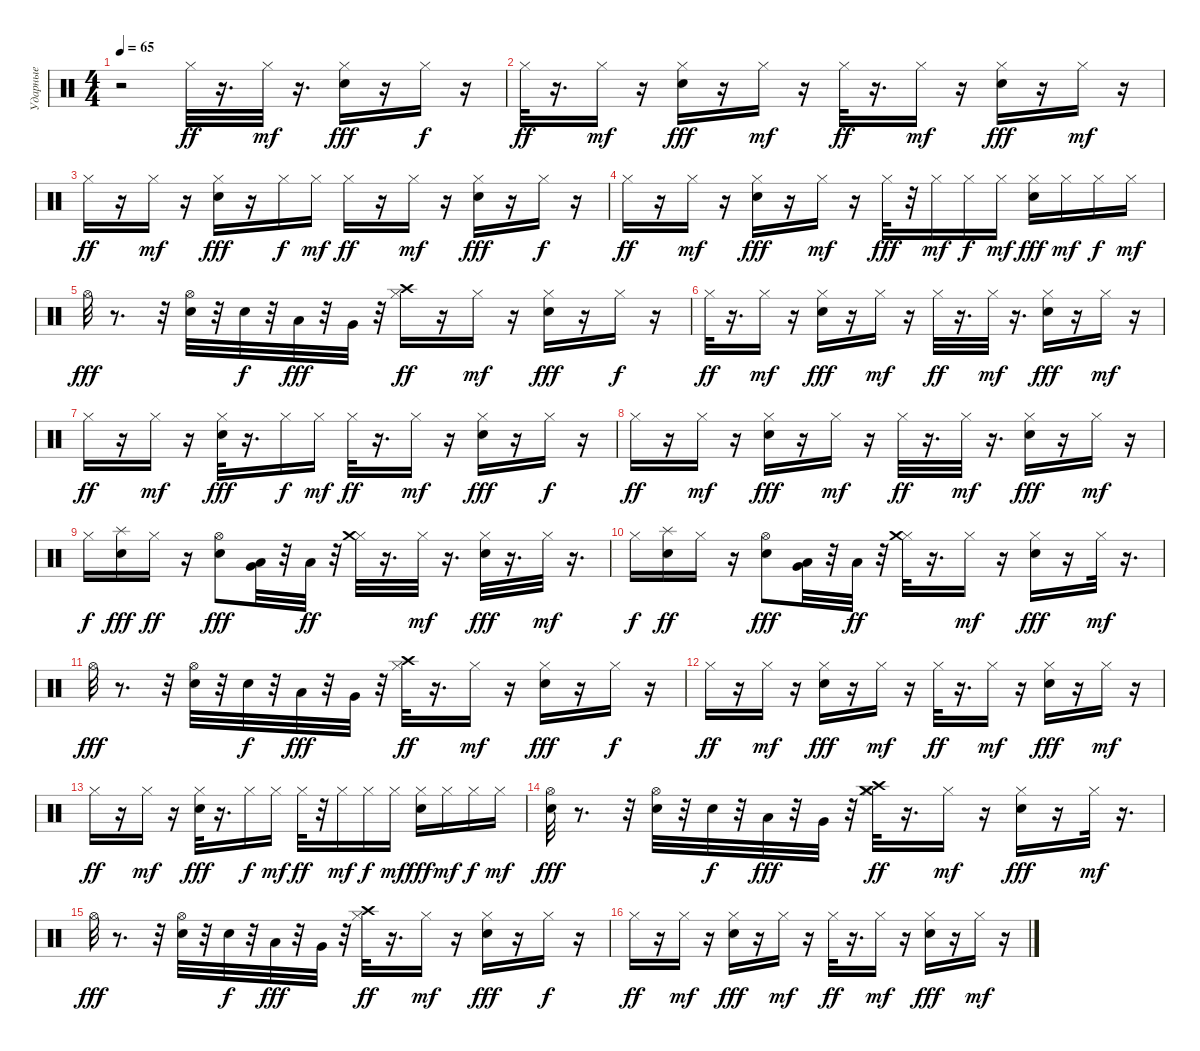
\track ("Ударные" "Ударные") {instrument percussion}
\staff {score}
\articulation defaults
\ts (4 4)
\tempo 65
\clef neutral
\ks c
r.2{dy fff} "Hi-Hat (closed)".32{dy ff} r.16{d} "Hi-Hat (closed)".32{dy mf} r.16{d} ("Hi-Hat (closed)" "Snare (hit) 2").16{dy fff} r.16 "Hi-Hat (closed)".16{dy f} r.16 |
"Hi-Hat (closed)".32{dy ff} r.16{d} "Hi-Hat (closed)".16{dy mf} r.16 ("Hi-Hat (closed)" "Snare (hit) 2").16{dy fff} r.16 "Hi-Hat (closed)".16{dy mf} r.16 "Hi-Hat (closed)".32{dy ff} r.16{d} "Hi-Hat (closed)".16{dy mf} r.16 ("Hi-Hat (closed)" "Snare (hit) 2").16{dy fff} r.16 "Hi-Hat (closed)".16{dy mf} r.16 |
"Hi-Hat (closed)".16{dy ff} r.16 "Hi-Hat (closed)".16{dy mf} r.16 ("Hi-Hat (closed)" "Snare (hit) 2").16{dy fff} r.16 "Hi-Hat (closed)".16{dy f} "Hi-Hat (closed)".16{dy mf} "Hi-Hat (closed)".16{dy ff} r.16 "Hi-Hat (closed)".16{dy mf} r.16 ("Snare (hit) 2" "Hi-Hat (closed)").16{dy fff} r.16 "Hi-Hat (closed)".16{dy f} r.16 |
"Hi-Hat (closed)".16{dy ff} r.16 "Hi-Hat (closed)".16{dy mf} r.16 ("Hi-Hat (closed)" "Snare (hit) 2").16{dy fff} r.16 "Hi-Hat (closed)".16{dy mf} r.16 "Hi-Hat (closed)".32{dy fff} r.32 "Hi-Hat (closed)".16{dy mf} "Hi-Hat (closed)".16{dy f} "Hi-Hat (closed)".16{dy mf} ("Hi-Hat (closed)" "Snare (hit) 2").16{dy fff} "Hi-Hat (closed)".16{dy mf} "Hi-Hat (closed)".16{dy f} "Hi-Hat (closed)".16{dy mf} |
"Hi-Hat (open)".32{dy fff} r.8{d} r.32 ("Snare (hit) 2" "Hi-Hat (open)").32 r.32 "Snare (hit) 2".32{dy f} r.32 "Low Tom (hit)".32{dy fff} r.32 "Very Low Tom (hit)".32 r.32 ("Hi-Hat (closed)" "Crash high (hit)").16{dy ff} r.16 "Hi-Hat (closed)".16{dy mf} r.16 ("Snare (hit) 2" "Hi-Hat (closed)").16{dy fff} r.16 "Hi-Hat (closed)".16{dy f} r.16 |
"Hi-Hat (closed)".32{dy ff} r.16{d} "Hi-Hat (closed)".16{dy mf} r.16 ("Snare (hit) 2" "Hi-Hat (closed)").16{dy fff} r.16 "Hi-Hat (closed)".16{dy mf} r.16 "Hi-Hat (closed)".32{dy ff} r.16{d} "Hi-Hat (closed)".32{dy mf} r.16{d} ("Hi-Hat (closed)" "Snare (hit) 2").16{dy fff} r.16 "Hi-Hat (closed)".16{dy mf} r.16 |
"Hi-Hat (closed)".16{dy ff} r.16 "Hi-Hat (closed)".16{dy mf} r.16 ("Snare (hit) 2" "Hi-Hat (closed)").32{dy fff} r.16{d} "Hi-Hat (closed)".16{dy f} "Hi-Hat (closed)".16{dy mf} "Hi-Hat (closed)".32{dy ff} r.16{d} "Hi-Hat (closed)".16{dy mf} r.16 ("Snare (hit) 2" "Hi-Hat (closed)").16{dy fff} r.16 "Hi-Hat (closed)".16{dy f} r.16 |
"Hi-Hat (closed)".16{dy ff} r.16 "Hi-Hat (closed)".16{dy mf} r.16 ("Snare (hit) 2" "Hi-Hat (closed)").16{dy fff} r.16 "Hi-Hat (closed)".16{dy mf} r.16 "Hi-Hat (closed)".32{dy ff} r.16{d} "Hi-Hat (closed)".32{dy mf} r.16{d} ("Snare (hit) 2" "Hi-Hat (closed)").16{dy fff} r.16 "Hi-Hat (closed)".16{dy mf} r.16 |
"Hi-Hat (closed)".16{dy f} ("Splash (hit)" "Snare (hit) 2").16{dy fff} "Hi-Hat (closed)".16{dy ff} r.16 ("Snare (hit) 2" "Hi-Hat (open)").8{dy fff} ("Very Low Tom (hit)" "Low Tom (hit)").32 r.32 "Low Floor Tom (hit)".32{dy ff} r.32 ("Hi-Hat (closed)" "Crash medium (hit)").32 r.16{d} "Hi-Hat (closed)".32{dy mf} r.16{d} ("Snare (hit) 2" "Hi-Hat (closed)").32{dy fff} r.16{d} "Hi-Hat (closed)".32{dy mf} r.16{d} |
"Hi-Hat (closed)".16{dy f} ("Snare (hit) 2" "Splash (hit)").16{dy ff} "Hi-Hat (closed)".16 r.16 ("Snare (hit) 2" "Hi-Hat (open)").8{dy fff} ("Low Tom (hit)" "Very Low Tom (hit)").32 r.32 "Low Floor Tom (hit)".32{dy ff} r.32 ("Hi-Hat (closed)" "Crash medium (hit)").32 r.16{d} "Hi-Hat (closed)".16{dy mf} r.16 ("Snare (hit) 2" "Hi-Hat (closed)").16{dy fff} r.16 "Hi-Hat (closed)".32{dy mf} r.16{d} |
"Hi-Hat (open)".32{dy fff} r.8{d} r.32 ("Snare (hit) 2" "Hi-Hat (open)").32 r.32 "Snare (hit) 2".32{dy f} r.32 "Low Tom (hit)".32{dy fff} r.32 "Very Low Tom (hit)".32 r.32 ("Crash high (hit)" "Hi-Hat (closed)").32{dy ff} r.16{d} "Hi-Hat (closed)".16{dy mf} r.16 ("Hi-Hat (closed)" "Snare (hit) 2").16{dy fff} r.16 "Hi-Hat (closed)".16{dy f} r.16 |
"Hi-Hat (closed)".16{dy ff} r.16 "Hi-Hat (closed)".16{dy mf} r.16 ("Hi-Hat (closed)" "Snare (hit) 2").16{dy fff} r.16 "Hi-Hat (closed)".16{dy mf} r.16 "Hi-Hat (closed)".32{dy ff} r.16{d} "Hi-Hat (closed)".16{dy mf} r.16 ("Hi-Hat (closed)" "Snare (hit) 2").16{dy fff} r.16 "Hi-Hat (closed)".16{dy mf} r.16 |
"Hi-Hat (closed)".16{dy ff} r.16 "Hi-Hat (closed)".16{dy mf} r.16 ("Hi-Hat (closed)" "Snare (hit) 2").32{dy fff} r.16{d} "Hi-Hat (closed)".16{dy f} "Hi-Hat (closed)".16{dy mf} "Hi-Hat (closed)".32{dy ff} r.32 "Hi-Hat (closed)".16{dy mf} "Hi-Hat (closed)".16{dy f} "Hi-Hat (closed)".16{dy mf} ("Snare (hit) 2" "Hi-Hat (closed)").16{dy fff} "Hi-Hat (closed)".16{dy mf} "Hi-Hat (closed)".16{dy f} "Hi-Hat (closed)".16{dy mf} |
("Snare (hit) 2" "Hi-Hat (open)").32{dy fff} r.8{d} r.32 ("Snare (hit) 2" "Hi-Hat (open)").32 r.32 "Snare (hit) 2".32{dy f} r.32 "Low Tom (hit)".32{dy fff} r.32 "Very Low Tom (hit)".32 r.32 ("Hi-Hat (closed)" "Crash medium (hit)" "Crash high (hit)").32{dy ff} r.16{d} "Hi-Hat (closed)".16{dy mf} r.16 ("Hi-Hat (closed)" "Snare (hit) 2").16{dy fff} r.16 "Hi-Hat (closed)".32{dy mf} r.16{d} |
"Hi-Hat (open)".32{dy fff} r.8{d} r.32 ("Hi-Hat (open)" "Snare (hit) 2").32 r.32 "Snare (hit) 2".32{dy f} r.32 "Low Tom (hit)".32{dy fff} r.32 "Very Low Tom (hit)".32 r.32 ("Hi-Hat (closed)" "Crash high (hit)").32{dy ff} r.16{d} "Hi-Hat (closed)".16{dy mf} r.16 ("Hi-Hat (closed)" "Snare (hit) 2").16{dy fff} r.16 "Hi-Hat (closed)".16{dy f} r.16 |
"Hi-Hat (closed)".16{dy ff} r.16 "Hi-Hat (closed)".16{dy mf} r.16 ("Hi-Hat (closed)" "Snare (hit) 2").16{dy fff} r.16 "Hi-Hat (closed)".16{dy mf} r.16 "Hi-Hat (closed)".32{dy ff} r.16{d} "Hi-Hat (closed)".16{dy mf} r.16 ("Hi-Hat (closed)" "Snare (hit) 2").16{dy fff} r.16 "Hi-Hat (closed)".16{dy mf} r.16
